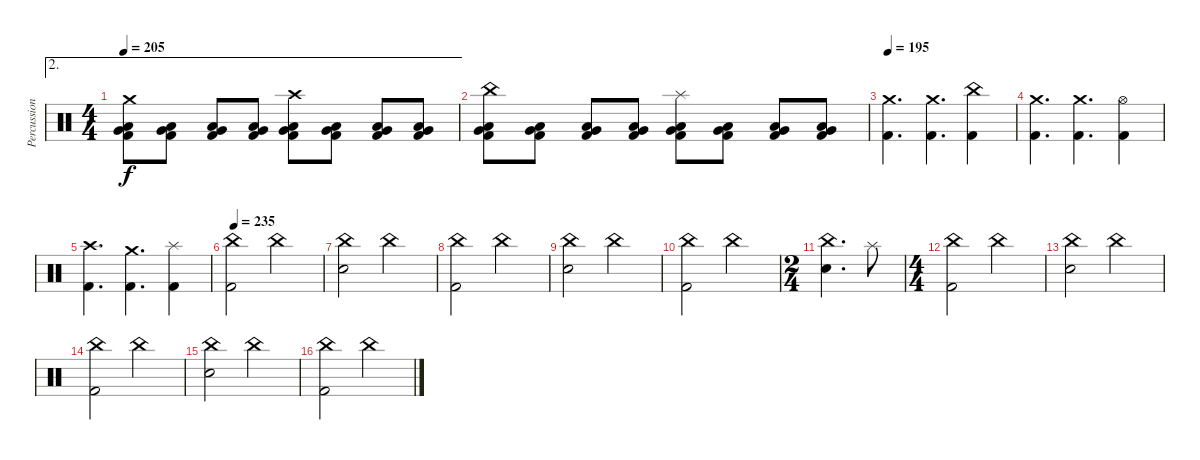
\track ("Percussion" "Percussion") {instrument percussion}
\staff {score}
\articulation defaults
\ae 2
\ts (4 4)
\tempo 205
\clef neutral
\ks c
("Crash medium (hit)" "Low Tom (hit)" "Kick (hit) 2" "Very Low Tom (hit)").8{dy f} ("Low Tom (hit)" "Kick (hit) 2" "Very Low Tom (hit)").8 ("Low Tom (hit)" "Kick (hit) 2" "Very Low Tom (hit)").8 ("Low Tom (hit)" "Kick (hit) 2" "Very Low Tom (hit)").8 ("Crash high (hit)" "Low Tom (hit)" "Kick (hit) 2" "Very Low Tom (hit)").8 ("Low Tom (hit)" "Kick (hit) 2" "Very Low Tom (hit)").8 ("Low Tom (hit)" "Kick (hit) 2" "Very Low Tom (hit)").8 ("Low Tom (hit)" "Kick (hit) 2" "Very Low Tom (hit)").8 |
("China (hit)" "Low Tom (hit)" "Kick (hit) 2" "Very Low Tom (hit)").8 ("Low Tom (hit)" "Kick (hit) 2" "Very Low Tom (hit)").8 ("Low Tom (hit)" "Kick (hit) 2" "Very Low Tom (hit)").8 ("Low Tom (hit)" "Kick (hit) 2" "Very Low Tom (hit)").8 ("Splash (hit)" "Low Tom (hit)" "Kick (hit) 2" "Very Low Tom (hit)").8 ("Low Tom (hit)" "Kick (hit) 2" "Very Low Tom (hit)").8 ("Low Tom (hit)" "Kick (hit) 2" "Very Low Tom (hit)").8 ("Low Tom (hit)" "Kick (hit) 2" "Very Low Tom (hit)").8 |
\tempo 195
("Crash medium (hit)" "Kick (hit) 2").4{d} ("Crash medium (hit)" "Kick (hit) 2").4{d} ("China (hit)" "Kick (hit) 2").4 |
("Crash medium (hit)" "Kick (hit) 2").4{d} ("Crash medium (hit)" "Kick (hit) 2").4{d} ("Hi-Hat (open)" "Kick (hit) 2").4 |
("Crash high (hit)" "Kick (hit) 2").4{d} ("Crash medium (hit)" "Kick (hit) 2").4{d} ("Splash (hit)" "Kick (hit) 2").4 |
\tempo 235
("China (hit)" "Kick (hit) 2").2 "China (hit)".2 |
("China (hit)" "Snare (hit) 2").2 "China (hit)".2 |
("China (hit)" "Kick (hit) 2").2 "China (hit)".2 |
("China (hit)" "Snare (hit) 2").2 "China (hit)".2 |
("China (hit)" "Kick (hit) 2").2 "China (hit)".2 |
\ts (2 4)
("China (hit)" "Snare (hit) 2").4{d} "Splash (hit)".8 |
\ts (4 4)
("China (hit)" "Kick (hit) 2").2 "China (hit)".2 |
("China (hit)" "Snare (hit) 2").2 "China (hit)".2 |
("China (hit)" "Kick (hit) 2").2 "China (hit)".2 |
("China (hit)" "Snare (hit) 2").2 "China (hit)".2 |
("China (hit)" "Kick (hit) 2").2 "China (hit)".2
